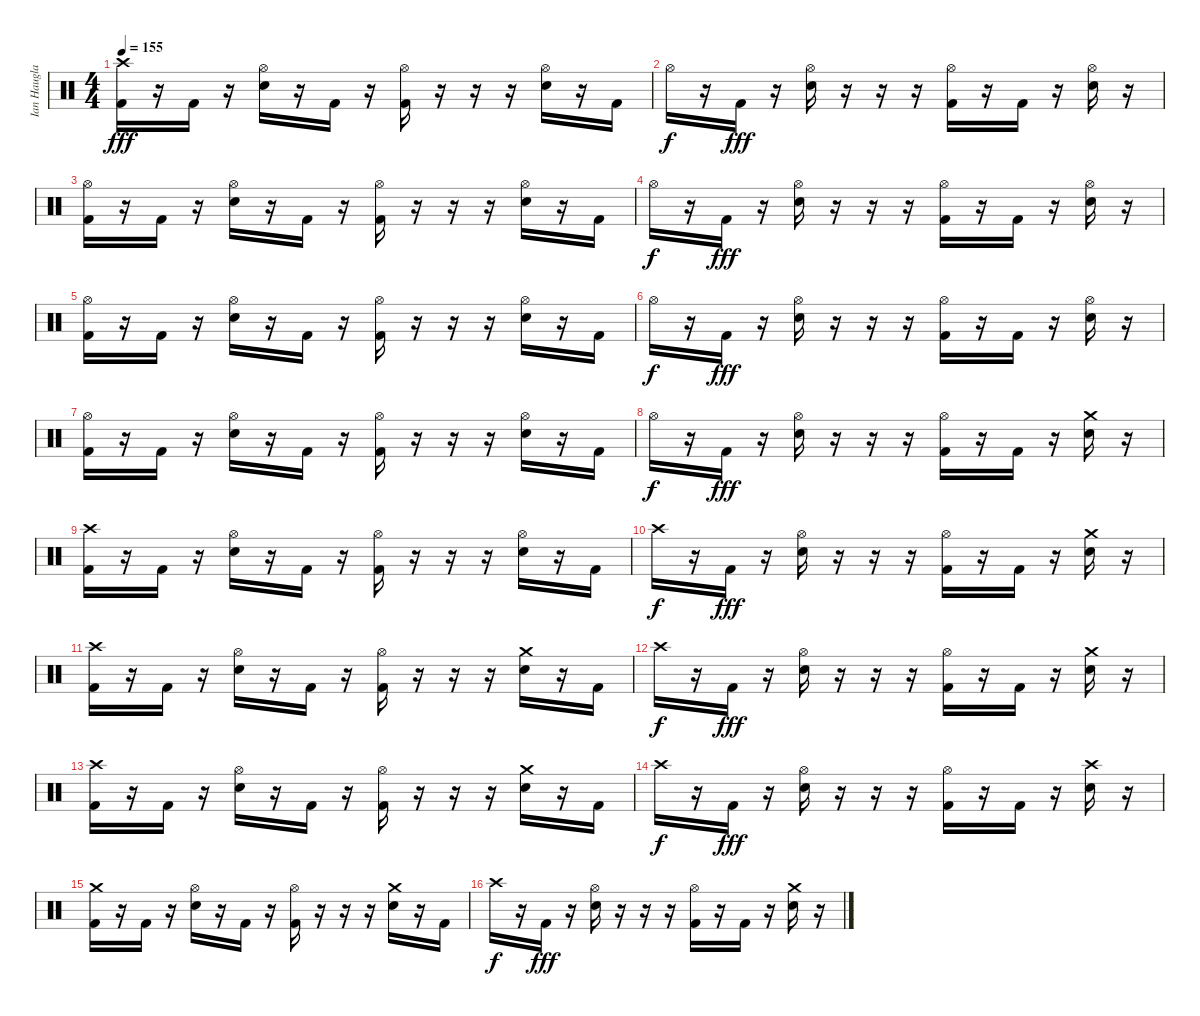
\track ("Ian Haugland" "Ian Haugla") {instrument percussion}
\staff {score}
\articulation defaults
\ts (4 4)
\tempo 155
\clef neutral
\ks c
("Crash high (hit)" "Kick (hit) 2").16{dy fff} r.16 "Kick (hit) 2".16 r.16 ("Hi-Hat (open)" "Electric Snare (hit)").16 r.16 "Kick (hit) 2".16 r.16 ("Hi-Hat (open)" "Kick (hit) 2").16 r.16 r.16 r.16 ("Hi-Hat (open)" "Electric Snare (hit)").16 r.16 "Kick (hit) 2".16 |
"Hi-Hat (open)".16{dy f} r.16 "Kick (hit) 2".16{dy fff} r.16 ("Hi-Hat (open)" "Electric Snare (hit)").16 r.16 r.16 r.16 ("Hi-Hat (open)" "Kick (hit) 2").16 r.16 "Kick (hit) 2".16 r.16 ("Hi-Hat (open)" "Electric Snare (hit)").16 r.16 |
("Hi-Hat (open)" "Kick (hit) 2").16 r.16 "Kick (hit) 2".16 r.16 ("Hi-Hat (open)" "Electric Snare (hit)").16 r.16 "Kick (hit) 2".16 r.16 ("Hi-Hat (open)" "Kick (hit) 2").16 r.16 r.16 r.16 ("Hi-Hat (open)" "Electric Snare (hit)").16 r.16 "Kick (hit) 2".16 |
"Hi-Hat (open)".16{dy f} r.16 "Kick (hit) 2".16{dy fff} r.16 ("Hi-Hat (open)" "Electric Snare (hit)").16 r.16 r.16 r.16 ("Hi-Hat (open)" "Kick (hit) 2").16 r.16 "Kick (hit) 2".16 r.16 ("Hi-Hat (open)" "Electric Snare (hit)").16 r.16 |
("Hi-Hat (open)" "Kick (hit) 2").16 r.16 "Kick (hit) 2".16 r.16 ("Hi-Hat (open)" "Electric Snare (hit)").16 r.16 "Kick (hit) 2".16 r.16 ("Hi-Hat (open)" "Kick (hit) 2").16 r.16 r.16 r.16 ("Hi-Hat (open)" "Electric Snare (hit)").16 r.16 "Kick (hit) 2".16 |
"Hi-Hat (open)".16{dy f} r.16 "Kick (hit) 2".16{dy fff} r.16 ("Hi-Hat (open)" "Electric Snare (hit)").16 r.16 r.16 r.16 ("Hi-Hat (open)" "Kick (hit) 2").16 r.16 "Kick (hit) 2".16 r.16 ("Hi-Hat (open)" "Electric Snare (hit)").16 r.16 |
("Hi-Hat (open)" "Kick (hit) 2").16 r.16 "Kick (hit) 2".16 r.16 ("Hi-Hat (open)" "Electric Snare (hit)").16 r.16 "Kick (hit) 2".16 r.16 ("Hi-Hat (open)" "Kick (hit) 2").16 r.16 r.16 r.16 ("Hi-Hat (open)" "Electric Snare (hit)").16 r.16 "Kick (hit) 2".16 |
"Hi-Hat (open)".16{dy f} r.16 "Kick (hit) 2".16{dy fff} r.16 ("Hi-Hat (open)" "Electric Snare (hit)").16 r.16 r.16 r.16 ("Hi-Hat (open)" "Kick (hit) 2").16 r.16 "Kick (hit) 2".16 r.16 ("Crash medium (hit)" "Electric Snare (hit)").16 r.16 |
("Crash high (hit)" "Kick (hit) 2").16 r.16 "Kick (hit) 2".16 r.16 ("Hi-Hat (open)" "Electric Snare (hit)").16 r.16 "Kick (hit) 2".16 r.16 ("Hi-Hat (open)" "Kick (hit) 2").16 r.16 r.16 r.16 ("Hi-Hat (open)" "Electric Snare (hit)").16 r.16 "Kick (hit) 2".16 |
"Crash high (hit)".16{dy f} r.16 "Kick (hit) 2".16{dy fff} r.16 ("Hi-Hat (open)" "Electric Snare (hit)").16 r.16 r.16 r.16 ("Hi-Hat (open)" "Kick (hit) 2").16 r.16 "Kick (hit) 2".16 r.16 ("Crash medium (hit)" "Electric Snare (hit)").16 r.16 |
("Crash high (hit)" "Kick (hit) 2").16 r.16 "Kick (hit) 2".16 r.16 ("Hi-Hat (open)" "Electric Snare (hit)").16 r.16 "Kick (hit) 2".16 r.16 ("Hi-Hat (open)" "Kick (hit) 2").16 r.16 r.16 r.16 ("Crash medium (hit)" "Electric Snare (hit)").16 r.16 "Kick (hit) 2".16 |
"Crash high (hit)".16{dy f} r.16 "Kick (hit) 2".16{dy fff} r.16 ("Hi-Hat (open)" "Electric Snare (hit)").16 r.16 r.16 r.16 ("Hi-Hat (open)" "Kick (hit) 2").16 r.16 "Kick (hit) 2".16 r.16 ("Crash medium (hit)" "Electric Snare (hit)").16 r.16 |
("Crash high (hit)" "Kick (hit) 2").16 r.16 "Kick (hit) 2".16 r.16 ("Hi-Hat (open)" "Electric Snare (hit)").16 r.16 "Kick (hit) 2".16 r.16 ("Hi-Hat (open)" "Kick (hit) 2").16 r.16 r.16 r.16 ("Crash medium (hit)" "Electric Snare (hit)").16 r.16 "Kick (hit) 2".16 |
"Crash high (hit)".16{dy f} r.16 "Kick (hit) 2".16{dy fff} r.16 ("Hi-Hat (open)" "Electric Snare (hit)").16 r.16 r.16 r.16 ("Hi-Hat (open)" "Kick (hit) 2").16 r.16 "Kick (hit) 2".16 r.16 ("Crash high (hit)" "Electric Snare (hit)").16 r.16 |
("Crash medium (hit)" "Kick (hit) 2").16 r.16 "Kick (hit) 2".16 r.16 ("Hi-Hat (open)" "Electric Snare (hit)").16 r.16 "Kick (hit) 2".16 r.16 ("Hi-Hat (open)" "Kick (hit) 2").16 r.16 r.16 r.16 ("Crash medium (hit)" "Electric Snare (hit)").16 r.16 "Kick (hit) 2".16 |
"Crash high (hit)".16{dy f} r.16 "Kick (hit) 2".16{dy fff} r.16 ("Hi-Hat (open)" "Electric Snare (hit)").16 r.16 r.16 r.16 ("Hi-Hat (open)" "Kick (hit) 2").16 r.16 "Kick (hit) 2".16 r.16 ("Crash medium (hit)" "Electric Snare (hit)").16 r.16
